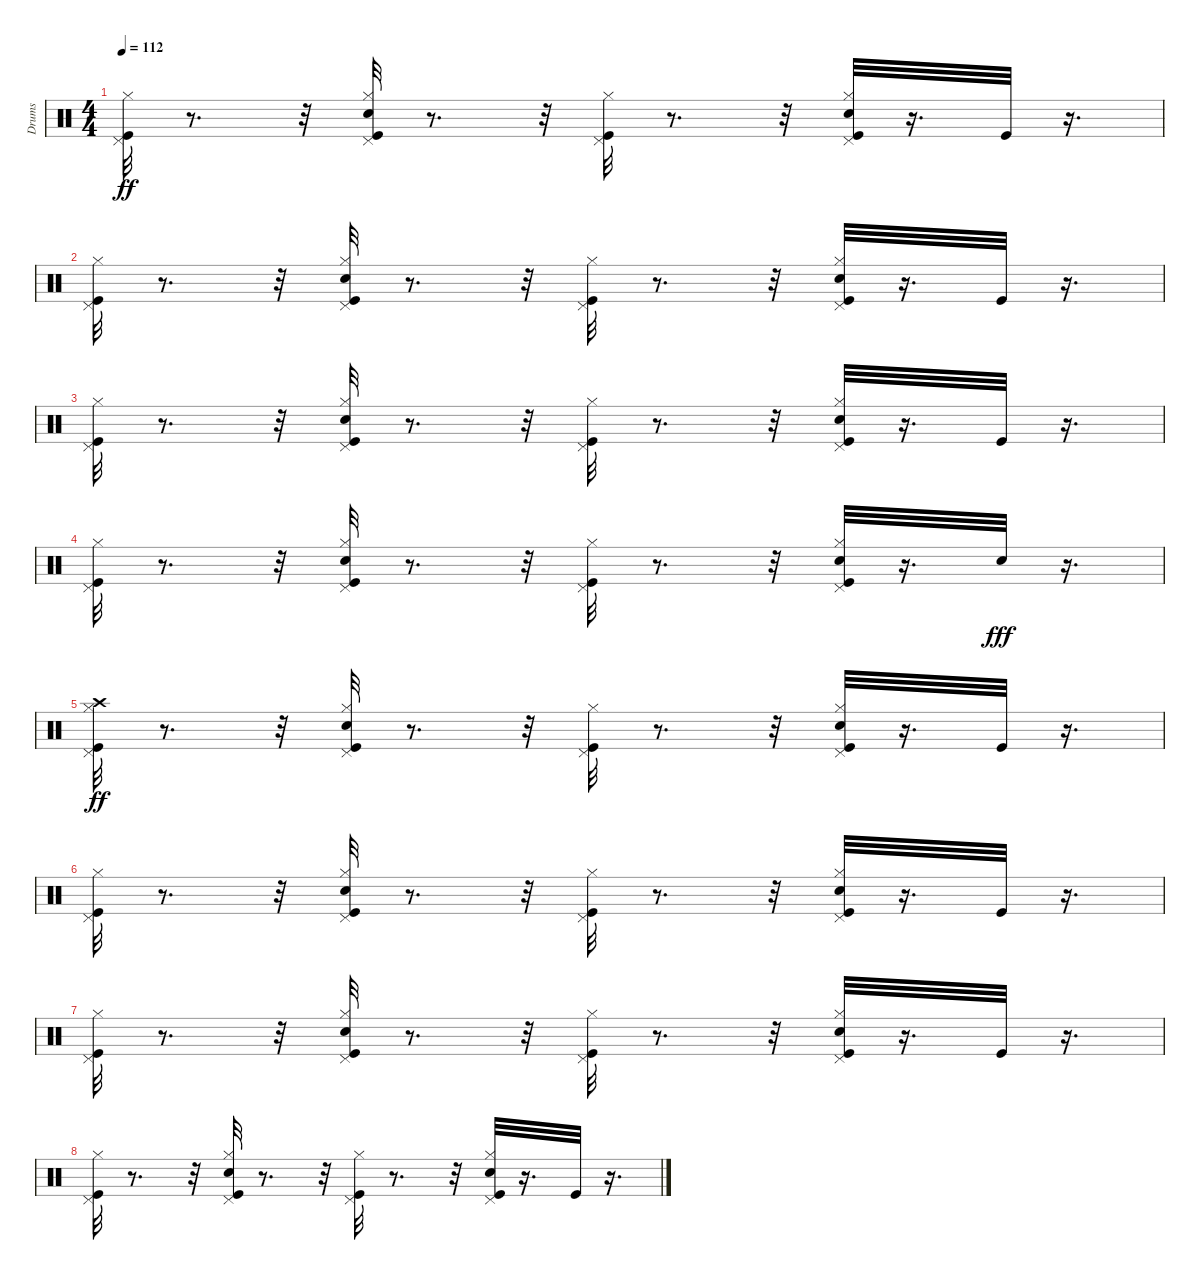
\track ("Drums" "Drums") {instrument percussion}
\staff {score}
\articulation defaults
\ts (4 4)
\tempo 112
\clef neutral
\ks c
("Pedal Hi-Hat (hit)" "Kick (hit)" "Hi-Hat (closed)").32{dy ff} r.8{d} r.32 ("Snare (hit) 2" "Pedal Hi-Hat (hit)" "Kick (hit)" "Hi-Hat (closed)").32 r.8{d} r.32 ("Kick (hit)" "Pedal Hi-Hat (hit)" "Hi-Hat (closed)").32 r.8{d} r.32 ("Hi-Hat (closed)" "Pedal Hi-Hat (hit)" "Kick (hit)" "Snare (hit) 2").32 r.16{d} "Kick (hit)".32 r.16{d} |
("Hi-Hat (closed)" "Pedal Hi-Hat (hit)" "Kick (hit)").32 r.8{d} r.32 ("Hi-Hat (closed)" "Pedal Hi-Hat (hit)" "Snare (hit) 2" "Kick (hit)").32 r.8{d} r.32 ("Kick (hit)" "Hi-Hat (closed)" "Pedal Hi-Hat (hit)").32 r.8{d} r.32 ("Pedal Hi-Hat (hit)" "Hi-Hat (closed)" "Kick (hit)" "Snare (hit) 2").32 r.16{d} "Kick (hit)".32 r.16{d} |
("Pedal Hi-Hat (hit)" "Kick (hit)" "Hi-Hat (closed)").32 r.8{d} r.32 ("Kick (hit)" "Pedal Hi-Hat (hit)" "Snare (hit) 2" "Hi-Hat (closed)").32 r.8{d} r.32 ("Kick (hit)" "Pedal Hi-Hat (hit)" "Hi-Hat (closed)").32 r.8{d} r.32 ("Kick (hit)" "Snare (hit) 2" "Pedal Hi-Hat (hit)" "Hi-Hat (closed)").32 r.16{d} "Kick (hit)".32 r.16{d} |
("Kick (hit)" "Hi-Hat (closed)" "Pedal Hi-Hat (hit)").32 r.8{d} r.32 ("Pedal Hi-Hat (hit)" "Hi-Hat (closed)" "Kick (hit)" "Snare (hit) 2").32 r.8{d} r.32 ("Kick (hit)" "Hi-Hat (closed)" "Pedal Hi-Hat (hit)").32 r.8{d} r.32 ("Kick (hit)" "Pedal Hi-Hat (hit)" "Hi-Hat (closed)" "Snare (hit) 2").32 r.16{d} "Snare (hit) 2".32{dy fff} r.16{d} |
("Hi-Hat (closed)" "Crash high (hit)" "Kick (hit)" "Pedal Hi-Hat (hit)").32{dy ff} r.8{d} r.32 ("Hi-Hat (closed)" "Snare (hit) 2" "Pedal Hi-Hat (hit)" "Kick (hit)").32 r.8{d} r.32 ("Hi-Hat (closed)" "Kick (hit)" "Pedal Hi-Hat (hit)").32 r.8{d} r.32 ("Pedal Hi-Hat (hit)" "Kick (hit)" "Snare (hit) 2" "Hi-Hat (closed)").32 r.16{d} "Kick (hit)".32 r.16{d} |
("Hi-Hat (closed)" "Kick (hit)" "Pedal Hi-Hat (hit)").32 r.8{d} r.32 ("Pedal Hi-Hat (hit)" "Kick (hit)" "Snare (hit) 2" "Hi-Hat (closed)").32 r.8{d} r.32 ("Hi-Hat (closed)" "Pedal Hi-Hat (hit)" "Kick (hit)").32 r.8{d} r.32 ("Pedal Hi-Hat (hit)" "Hi-Hat (closed)" "Snare (hit) 2" "Kick (hit)").32 r.16{d} "Kick (hit)".32 r.16{d} |
("Kick (hit)" "Pedal Hi-Hat (hit)" "Hi-Hat (closed)").32 r.8{d} r.32 ("Pedal Hi-Hat (hit)" "Snare (hit) 2" "Kick (hit)" "Hi-Hat (closed)").32 r.8{d} r.32 ("Pedal Hi-Hat (hit)" "Kick (hit)" "Hi-Hat (closed)").32 r.8{d} r.32 ("Snare (hit) 2" "Kick (hit)" "Hi-Hat (closed)" "Pedal Hi-Hat (hit)").32 r.16{d} "Kick (hit)".32 r.16{d} |
("Hi-Hat (closed)" "Kick (hit)" "Pedal Hi-Hat (hit)").32 r.8{d} r.32 ("Hi-Hat (closed)" "Pedal Hi-Hat (hit)" "Kick (hit)" "Snare (hit) 2").32 r.8{d} r.32 ("Pedal Hi-Hat (hit)" "Kick (hit)" "Hi-Hat (closed)").32 r.8{d} r.32 ("Hi-Hat (closed)" "Snare (hit) 2" "Pedal Hi-Hat (hit)" "Kick (hit)").32 r.16{d} "Kick (hit)".32 r.16{d}
